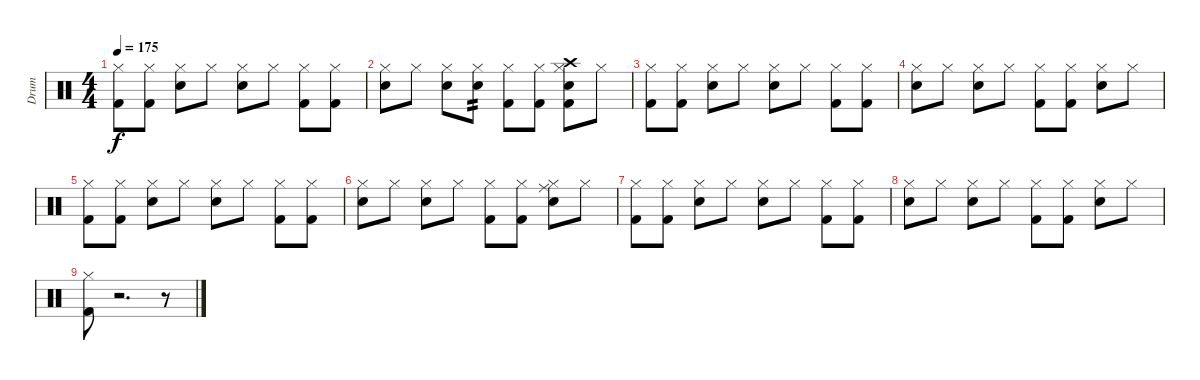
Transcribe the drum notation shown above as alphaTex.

\track ("Drum" "Drum") {instrument percussion}
\staff {score}
\articulation defaults
\ts (4 4)
\tempo 175
\clef neutral
\ks c
("Hi-Hat (closed)" "Kick (hit) 2").8{dy f} ("Hi-Hat (closed)" "Kick (hit) 2").8 ("Hi-Hat (closed)" "Snare (hit) 2").8 "Hi-Hat (closed)".8 ("Hi-Hat (closed)" "Snare (hit) 2").8 "Hi-Hat (closed)".8 ("Hi-Hat (closed)" "Kick (hit) 2").8 ("Hi-Hat (closed)" "Kick (hit) 2").8 |
("Hi-Hat (closed)" "Snare (hit) 2").8 "Hi-Hat (closed)".8 ("Hi-Hat (closed)" "Snare (hit) 2").8 ("Hi-Hat (closed)" "Snare (hit) 2").8{tp 2} ("Hi-Hat (closed)" "Kick (hit) 2").8 ("Hi-Hat (closed)" "Kick (hit) 2").8 ("Hi-Hat (closed)" "Crash high (hit)" "Snare (hit) 2" "Kick (hit) 2").8 "Hi-Hat (closed)".8 |
("Hi-Hat (closed)" "Kick (hit) 2").8 ("Hi-Hat (closed)" "Kick (hit) 2").8 ("Hi-Hat (closed)" "Snare (hit) 2").8 "Hi-Hat (closed)".8 ("Hi-Hat (closed)" "Snare (hit) 2").8 "Hi-Hat (closed)".8 ("Hi-Hat (closed)" "Kick (hit) 2").8 ("Hi-Hat (closed)" "Kick (hit) 2").8 |
("Hi-Hat (closed)" "Snare (hit) 2").8 "Hi-Hat (closed)".8 ("Hi-Hat (closed)" "Snare (hit) 2").8 "Hi-Hat (closed)".8 ("Hi-Hat (closed)" "Kick (hit) 2").8 ("Hi-Hat (closed)" "Kick (hit) 2").8 ("Hi-Hat (closed)" "Snare (hit) 2").8 "Hi-Hat (closed)".8 |
("Hi-Hat (closed)" "Kick (hit) 2").8 ("Hi-Hat (closed)" "Kick (hit) 2").8 ("Hi-Hat (closed)" "Snare (hit) 2").8 "Hi-Hat (closed)".8 ("Hi-Hat (closed)" "Snare (hit) 2").8 "Hi-Hat (closed)".8 ("Hi-Hat (closed)" "Kick (hit) 2").8 ("Hi-Hat (closed)" "Kick (hit) 2").8 |
("Hi-Hat (closed)" "Snare (hit) 2").8 "Hi-Hat (closed)".8 ("Hi-Hat (closed)" "Snare (hit) 2").8 "Hi-Hat (closed)".8 ("Hi-Hat (closed)" "Kick (hit) 2").8 ("Hi-Hat (closed)" "Kick (hit) 2").8 ("Hi-Hat (closed)" "Ride (middle)" "Snare (hit) 2").8 "Hi-Hat (closed)".8 |
("Hi-Hat (closed)" "Kick (hit) 2").8 ("Hi-Hat (closed)" "Kick (hit) 2").8 ("Hi-Hat (closed)" "Snare (hit) 2").8 "Hi-Hat (closed)".8 ("Hi-Hat (closed)" "Snare (hit) 2").8 "Hi-Hat (closed)".8 ("Hi-Hat (closed)" "Kick (hit) 2").8 ("Hi-Hat (closed)" "Kick (hit) 2").8 |
("Hi-Hat (closed)" "Snare (hit) 2").8 "Hi-Hat (closed)".8 ("Hi-Hat (closed)" "Snare (hit) 2").8 "Hi-Hat (closed)".8 ("Hi-Hat (closed)" "Kick (hit) 2").8 ("Hi-Hat (closed)" "Kick (hit) 2").8 ("Hi-Hat (closed)" "Snare (hit) 2").8 "Hi-Hat (closed)".8 |
("Hi-Hat (closed)" "Kick (hit) 2").8 r.2{d} r.8
